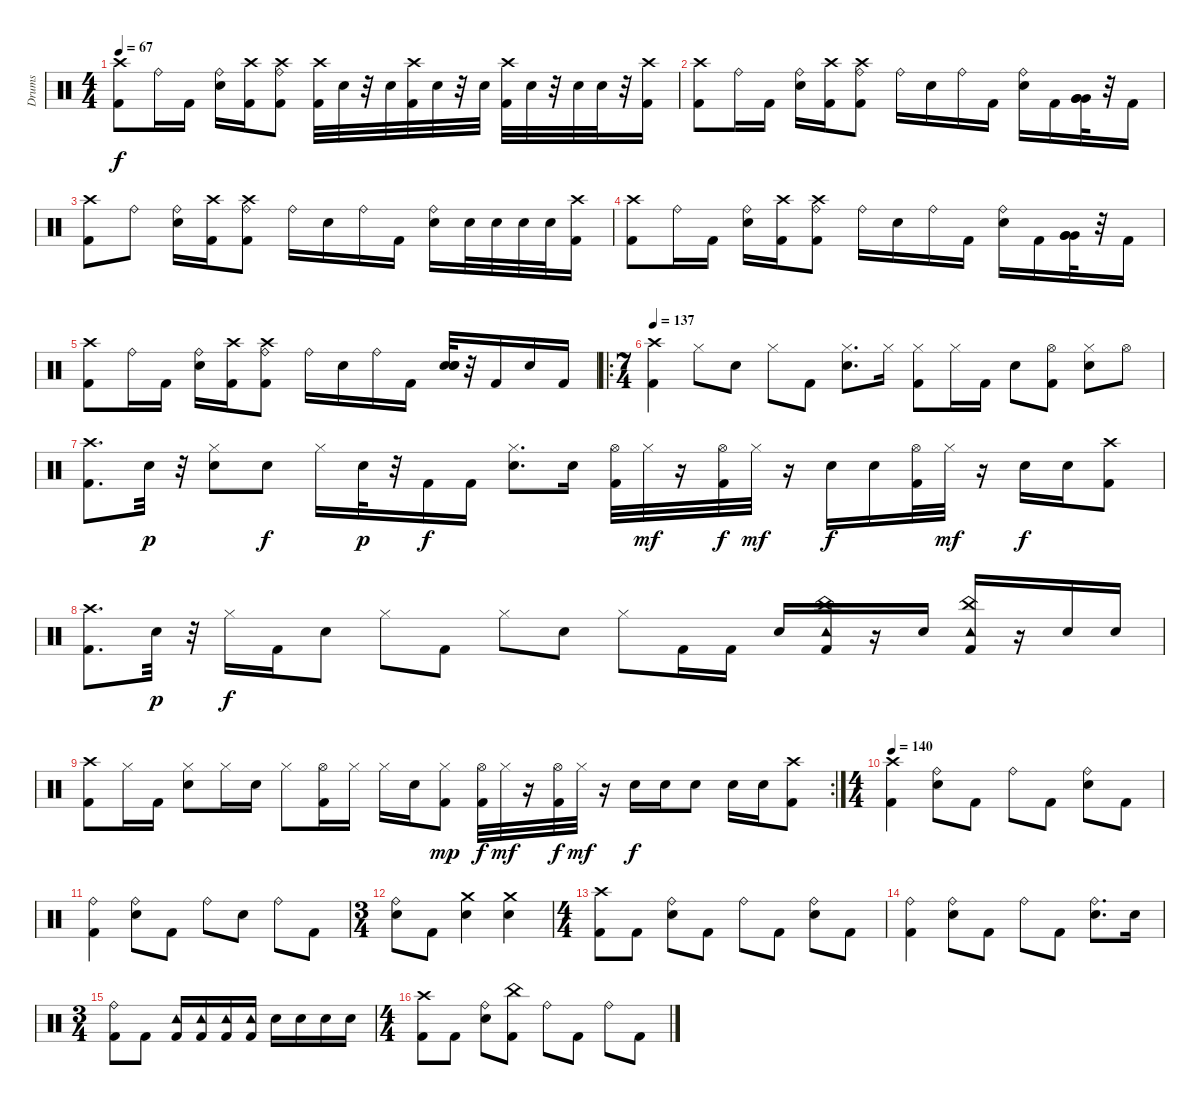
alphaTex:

\track ("Drums" "Drums") {instrument percussion}
\staff {score}
\articulation defaults
\ts (4 4)
\tempo 67
\clef neutral
\ks c
("Crash high (hit)" "Kick (hit) 2").8{dy f} "Ride (bell)".16 "Kick (hit) 2".16 ("Ride (bell)" "Electric Snare (hit)").16 ("Crash high (hit)" "Kick (hit) 2").16 ("Ride (bell)" "Crash high (hit)" "Kick (hit) 2").8 ("Kick (hit) 2" "Crash high (hit)").32 "Electric Snare (hit)".32 r.32 "Electric Snare (hit)".32 ("Kick (hit) 2" "Crash high (hit)").32 "Electric Snare (hit)".32 r.32 "Electric Snare (hit)".32 ("Kick (hit) 2" "Crash high (hit)").32 "Electric Snare (hit)".32 r.32 "Electric Snare (hit)".32 "Electric Snare (hit)".32 r.32 ("Crash high (hit)" "Kick (hit) 2").16 |
("Kick (hit) 2" "Crash high (hit)").8 "Ride (bell)".16 "Kick (hit) 2".16 ("Ride (bell)" "Electric Snare (hit)").16 ("Kick (hit) 2" "Crash high (hit)").16 ("Ride (bell)" "Crash high (hit)" "Kick (hit) 2").8 "Ride (bell)".16 "Electric Snare (hit)".16 "Ride (bell)".16 "Kick (hit) 2".16 ("Electric Snare (hit)" "Ride (bell)").16 "Kick (hit) 2".16 ("Very Low Tom (hit)" "Very Low Tom (hit)" "Very Low Tom (hit)").32 r.32 "Kick (hit) 2".16 |
("Kick (hit) 2" "Crash high (hit)").8 "Ride (bell)".8 ("Ride (bell)" "Electric Snare (hit)").16 ("Kick (hit) 2" "Crash high (hit)").16 ("Ride (bell)" "Crash high (hit)" "Kick (hit) 2").8 "Ride (bell)".16 "Electric Snare (hit)".16 "Ride (bell)".16 "Kick (hit) 2".16 ("Ride (bell)" "Electric Snare (hit)").16 "Electric Snare (hit)".32 "Electric Snare (hit)".32 "Electric Snare (hit)".32 "Electric Snare (hit)".32 ("Crash high (hit)" "Kick (hit) 2").16 |
("Crash high (hit)" "Kick (hit) 2").8 "Ride (bell)".16 "Kick (hit) 2".16 ("Ride (bell)" "Electric Snare (hit)").16 ("Kick (hit) 2" "Crash high (hit)").16 ("Ride (bell)" "Crash high (hit)" "Kick (hit) 2").8 "Ride (bell)".16 "Electric Snare (hit)".16 "Ride (bell)".16 "Kick (hit) 2".16 ("Electric Snare (hit)" "Ride (bell)").16 "Kick (hit) 2".16 ("Very Low Tom (hit)" "Very Low Tom (hit)" "Very Low Tom (hit)").32 r.32 "Kick (hit) 2".16 |
("Kick (hit) 2" "Crash high (hit)").8 "Ride (bell)".16 "Kick (hit) 2".16 ("Ride (bell)" "Electric Snare (hit)").16 ("Kick (hit) 2" "Crash high (hit)").16 ("Ride (bell)" "Crash high (hit)" "Kick (hit) 2").8 "Ride (bell)".16 "Electric Snare (hit)".16 "Ride (bell)".16 "Kick (hit) 2".16 ("Electric Snare (hit)" "Electric Snare (hit)" "Electric Snare (hit)").32 r.32 "Kick (hit) 2".16 "Electric Snare (hit)".16 "Kick (hit) 2".16 |
\ro
\ts (7 4)
\tempo 137
("Crash high (hit)" "Kick (hit) 2").4 "Hi-Hat (closed)".8 "Electric Snare (hit)".8 "Hi-Hat (closed)".8 "Kick (hit) 2".8 ("Electric Snare (hit)" "Hi-Hat (closed)").8{d} "Hi-Hat (closed)".16 ("Kick (hit) 2" "Hi-Hat (closed)").8 "Hi-Hat (closed)".16 "Kick (hit) 2".16 "Electric Snare (hit)".8 ("Hi-Hat (open)" "Kick (hit) 2").8 ("Hi-Hat (closed)" "Electric Snare (hit)").8 "Hi-Hat (open)".8 |
("Kick (hit) 2" "Crash high (hit)").8{d} "Electric Snare (hit)".32{dy p} r.32 ("Hi-Hat (closed)" "Electric Snare (hit)").8 "Electric Snare (hit)".8{dy f} "Hi-Hat (closed)".16 "Electric Snare (hit)".32{dy p} r.32 "Kick (hit) 2".16{dy f} "Kick (hit) 2".16 ("Electric Snare (hit)" "Hi-Hat (closed)").8{d} "Electric Snare (hit)".16 ("Kick (hit) 2" "Hi-Hat (open)").32 "Hi-Hat (closed)".32{dy mf} r.16 ("Kick (hit) 2" "Hi-Hat (open)").32{dy f} "Hi-Hat (closed)".32{dy mf} r.16 "Electric Snare (hit)".16{dy f} "Electric Snare (hit)".16 ("Hi-Hat (open)" "Kick (hit) 2").32 "Hi-Hat (closed)".32{dy mf} r.16 "Electric Snare (hit)".16{dy f} "Electric Snare (hit)".16 ("Crash high (hit)" "Kick (hit) 2").8 |
("Kick (hit) 2" "Crash high (hit)").8{d} "Electric Snare (hit)".32{dy p} r.32 "Hi-Hat (closed)".16{dy f} "Kick (hit) 2".16 "Electric Snare (hit)".8 "Hi-Hat (closed)".8 "Kick (hit) 2".8 "Hi-Hat (closed)".8 "Electric Snare (hit)".8 "Hi-Hat (closed)".8 "Kick (hit) 2".16 "Kick (hit) 2".16 "Electric Snare (hit)".16 ("Kick (hit) 2" "China (hit)" "Tambourine (hit)").16 r.16 "Electric Snare (hit)".16 ("Kick (hit) 2" "China (hit)" "Tambourine (hit)").16 r.16 "Electric Snare (hit)".16 "Electric Snare (hit)".16 |
\rc 2
("Crash high (hit)" "Kick (hit) 2").8 "Hi-Hat (closed)".16 "Kick (hit) 2".16 ("Hi-Hat (closed)" "Electric Snare (hit)").8 "Hi-Hat (closed)".16 "Electric Snare (hit)".16 "Hi-Hat (closed)".8 ("Kick (hit) 2" "Hi-Hat (open)").16 "Hi-Hat (closed)".16 "Hi-Hat (closed)".16 "Electric Snare (hit)".16 ("Kick (hit) 2" "Hi-Hat (closed)").8{dy mp} ("Kick (hit) 2" "Hi-Hat (open)").32{dy f} "Hi-Hat (closed)".32{dy mf} r.16 ("Kick (hit) 2" "Hi-Hat (open)").32{dy f} "Hi-Hat (closed)".32{dy mf} r.16 "Electric Snare (hit)".16{dy f} "Electric Snare (hit)".16 "Electric Snare (hit)".8 "Electric Snare (hit)".16 "Electric Snare (hit)".16 ("Kick (hit) 2" "Crash high (hit)").8 |
\ts (4 4)
\tempo 140
("Kick (hit) 2" "Crash high (hit)").4 ("Electric Snare (hit)" "Ride (bell)").8 "Kick (hit) 2".8 "Ride (bell)".8 "Kick (hit) 2".8 ("Electric Snare (hit)" "Ride (bell)").8 "Kick (hit) 2".8 |
("Kick (hit) 2" "Ride (bell)").4 ("Electric Snare (hit)" "Ride (bell)").8 "Kick (hit) 2".8 "Ride (bell)".8 "Electric Snare (hit)".8 "Ride (bell)".8 "Kick (hit) 2".8 |
\ts (3 4)
("Ride (bell)" "Electric Snare (hit)").8 "Kick (hit) 2".8 ("Electric Snare (hit)" "Crash medium (hit)").4 ("Electric Snare (hit)" "Crash medium (hit)").4 |
\ts (4 4)
("Crash high (hit)" "Kick (hit) 2").8 "Kick (hit) 2".8 ("Electric Snare (hit)" "Ride (bell)").8 "Kick (hit) 2".8 "Ride (bell)".8 "Kick (hit) 2".8 ("Electric Snare (hit)" "Ride (bell)").8 "Kick (hit) 2".8 |
("Kick (hit) 2" "Ride (bell)").4 ("Electric Snare (hit)" "Ride (bell)").8 "Kick (hit) 2".8 "Ride (bell)".8 "Kick (hit) 2".8 ("Electric Snare (hit)" "Ride (bell)").8{d} "Electric Snare (hit)".16 |
\ts (3 4)
("Ride (bell)" "Kick (hit) 2").8 "Kick (hit) 2".8 ("Kick (hit) 2" "Tambourine (hit)").16 ("Tambourine (hit)" "Kick (hit) 2").16 ("Tambourine (hit)" "Kick (hit) 2").16 ("Tambourine (hit)" "Kick (hit) 2").16 "Electric Snare (hit)".16 "Electric Snare (hit)".16 "Electric Snare (hit)".16 "Electric Snare (hit)".16 |
\ts (4 4)
("Crash high (hit)" "Kick (hit) 2").8 "Kick (hit) 2".8 ("Electric Snare (hit)" "Ride (bell)").8 ("Kick (hit) 2" "China (hit)").8 "Ride (bell)".8 "Kick (hit) 2".8 "Ride (bell)".8 "Kick (hit) 2".8
